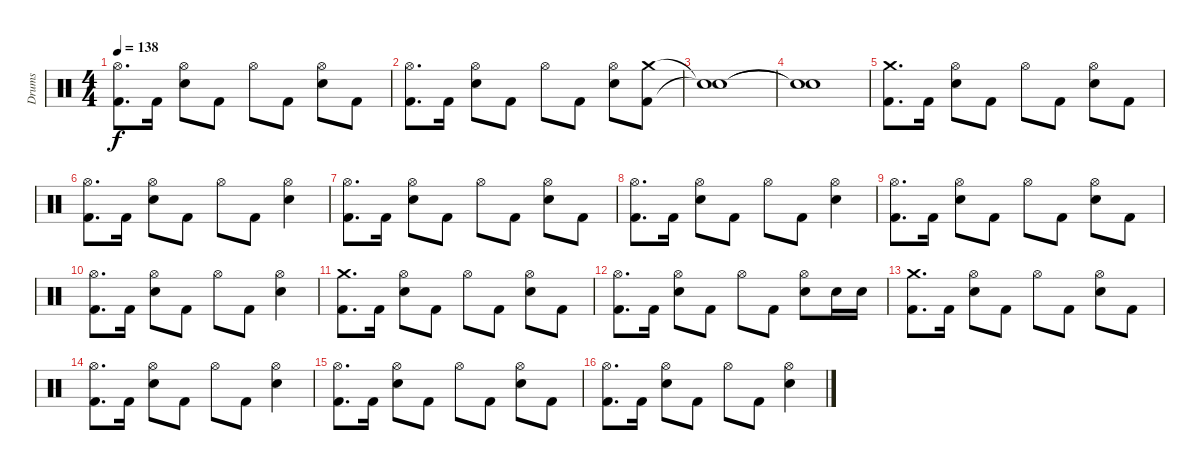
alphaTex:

\track ("Drums" "Drums") {instrument percussion}
\staff {score}
\articulation defaults
\ts (4 4)
\tempo 138
\clef neutral
\ks c
("Hi-Hat (open)" "Kick (hit) 2").8{d dy f} "Kick (hit) 2".16 ("Hi-Hat (open)" "Electric Snare (hit)").8 "Kick (hit) 2".8 "Hi-Hat (open)".8 "Kick (hit) 2".8 ("Hi-Hat (open)" "Electric Snare (hit)").8 "Kick (hit) 2".8 |
("Hi-Hat (open)" "Kick (hit) 2").8{d} "Kick (hit) 2".16 ("Hi-Hat (open)" "Electric Snare (hit)").8 "Kick (hit) 2".8 "Hi-Hat (open)".8 "Kick (hit) 2".8 ("Hi-Hat (open)" "Electric Snare (hit)").8 ("Kick (hit) 2" "Crash medium (hit)").8 |
("Snare (hit)"{t} "Snare (hit)"{t}).1 |
("Snare (hit)"{t} "Snare (hit)"{t}).1 |
("Crash medium (hit)" "Kick (hit) 2").8{d} "Kick (hit) 2".16 ("Hi-Hat (open)" "Electric Snare (hit)").8 "Kick (hit) 2".8 "Hi-Hat (open)".8 "Kick (hit) 2".8 ("Hi-Hat (open)" "Electric Snare (hit)").8 "Kick (hit) 2".8 |
("Hi-Hat (open)" "Kick (hit) 2").8{d} "Kick (hit) 2".16 ("Hi-Hat (open)" "Electric Snare (hit)").8 "Kick (hit) 2".8 "Hi-Hat (open)".8 "Kick (hit) 2".8 ("Hi-Hat (open)" "Electric Snare (hit)").4 |
("Hi-Hat (open)" "Kick (hit) 2").8{d} "Kick (hit) 2".16 ("Hi-Hat (open)" "Electric Snare (hit)").8 "Kick (hit) 2".8 "Hi-Hat (open)".8 "Kick (hit) 2".8 ("Hi-Hat (open)" "Electric Snare (hit)").8 "Kick (hit) 2".8 |
("Hi-Hat (open)" "Kick (hit) 2").8{d} "Kick (hit) 2".16 ("Hi-Hat (open)" "Electric Snare (hit)").8 "Kick (hit) 2".8 "Hi-Hat (open)".8 "Kick (hit) 2".8 ("Hi-Hat (open)" "Electric Snare (hit)").4 |
("Hi-Hat (open)" "Kick (hit) 2").8{d} "Kick (hit) 2".16 ("Hi-Hat (open)" "Electric Snare (hit)").8 "Kick (hit) 2".8 "Hi-Hat (open)".8 "Kick (hit) 2".8 ("Hi-Hat (open)" "Electric Snare (hit)").8 "Kick (hit) 2".8 |
("Hi-Hat (open)" "Kick (hit) 2").8{d} "Kick (hit) 2".16 ("Hi-Hat (open)" "Electric Snare (hit)").8 "Kick (hit) 2".8 "Hi-Hat (open)".8 "Kick (hit) 2".8 ("Hi-Hat (open)" "Electric Snare (hit)").4 |
("Crash medium (hit)" "Kick (hit) 2").8{d} "Kick (hit) 2".16 ("Hi-Hat (open)" "Electric Snare (hit)").8 "Kick (hit) 2".8 "Hi-Hat (open)".8 "Kick (hit) 2".8 ("Hi-Hat (open)" "Electric Snare (hit)").8 "Kick (hit) 2".8 |
("Hi-Hat (open)" "Kick (hit) 2").8{d} "Kick (hit) 2".16 ("Hi-Hat (open)" "Electric Snare (hit)").8 "Kick (hit) 2".8 "Hi-Hat (open)".8 "Kick (hit) 2".8 ("Hi-Hat (open)" "Electric Snare (hit)").8 "Electric Snare (hit)".16 "Electric Snare (hit)".16 |
("Crash medium (hit)" "Kick (hit) 2").8{d} "Kick (hit) 2".16 ("Hi-Hat (open)" "Electric Snare (hit)").8 "Kick (hit) 2".8 "Hi-Hat (open)".8 "Kick (hit) 2".8 ("Hi-Hat (open)" "Electric Snare (hit)").8 "Kick (hit) 2".8 |
("Hi-Hat (open)" "Kick (hit) 2").8{d} "Kick (hit) 2".16 ("Hi-Hat (open)" "Electric Snare (hit)").8 "Kick (hit) 2".8 "Hi-Hat (open)".8 "Kick (hit) 2".8 ("Hi-Hat (open)" "Electric Snare (hit)").4 |
("Hi-Hat (open)" "Kick (hit) 2").8{d} "Kick (hit) 2".16 ("Hi-Hat (open)" "Electric Snare (hit)").8 "Kick (hit) 2".8 "Hi-Hat (open)".8 "Kick (hit) 2".8 ("Hi-Hat (open)" "Electric Snare (hit)").8 "Kick (hit) 2".8 |
("Hi-Hat (open)" "Kick (hit) 2").8{d} "Kick (hit) 2".16 ("Hi-Hat (open)" "Electric Snare (hit)").8 "Kick (hit) 2".8 "Hi-Hat (open)".8 "Kick (hit) 2".8 ("Hi-Hat (open)" "Electric Snare (hit)").4
